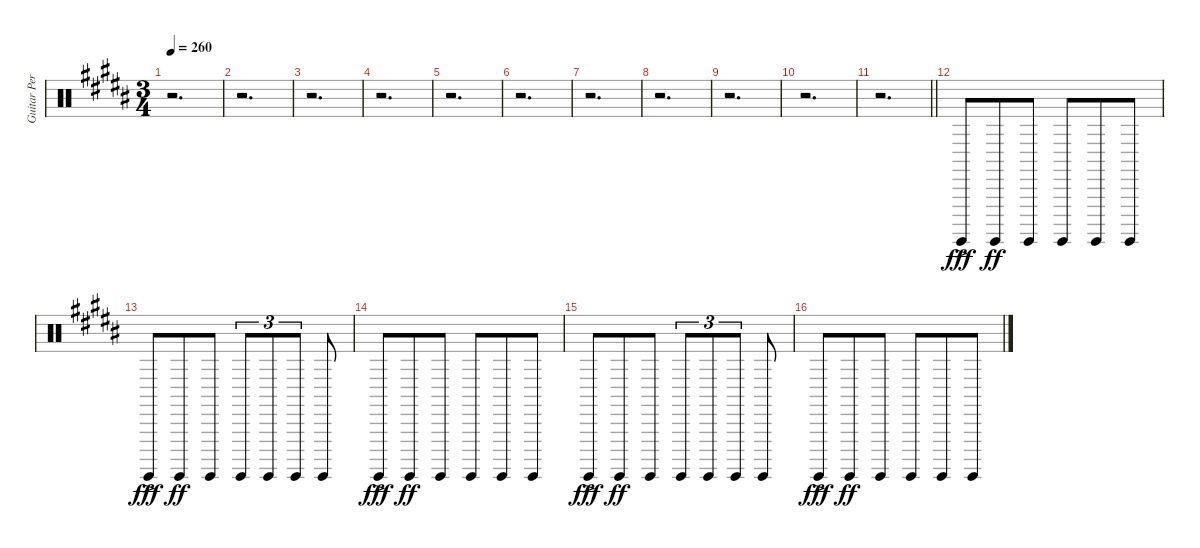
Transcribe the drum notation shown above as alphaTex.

\track ("Guitar Percussion Noises" "Guitar Per") {instrument percussion}
\staff {score}
\articulation defaults
\ts (3 4)
\tempo 260
\clef neutral
\ks b
r.2{d dy ff} |
r.2{d} |
r.2{d} |
r.2{d} |
r.2{d} |
r.2{d} |
r.2{d} |
r.2{d} |
r.2{d} |
r.2{d} |
\barLineRight lightlight
r.2{d} |
"Surdo (hit)"{ac}.8{dy fff} "Surdo (hit)".8{dy ff beam merge} "Surdo (hit)".8{beam split} "Surdo (hit)".8{beam merge} "Surdo (hit)".8{beam merge} "Surdo (hit)".8 |
"Surdo (hit)"{ac}.8{dy fff} "Surdo (hit)".8{dy ff beam merge} "Surdo (hit)".8{beam split} "Surdo (hit)".8{tu (3 2)} "Surdo (hit)".8{tu (3 2) beam merge} "Surdo (hit)".8{tu (3 2) beam split} "Surdo (hit)".8 |
"Surdo (hit)"{ac}.8{dy fff} "Surdo (hit)".8{dy ff beam merge} "Surdo (hit)".8{beam split} "Surdo (hit)".8{beam merge} "Surdo (hit)".8{beam merge} "Surdo (hit)".8 |
"Surdo (hit)"{ac}.8{dy fff} "Surdo (hit)".8{dy ff beam merge} "Surdo (hit)".8{beam split} "Surdo (hit)".8{tu (3 2)} "Surdo (hit)".8{tu (3 2) beam merge} "Surdo (hit)".8{tu (3 2) beam split} "Surdo (hit)".8 |
"Surdo (hit)"{ac}.8{dy fff} "Surdo (hit)".8{dy ff beam merge} "Surdo (hit)".8{beam split} "Surdo (hit)".8{beam merge} "Surdo (hit)".8{beam merge} "Surdo (hit)".8
